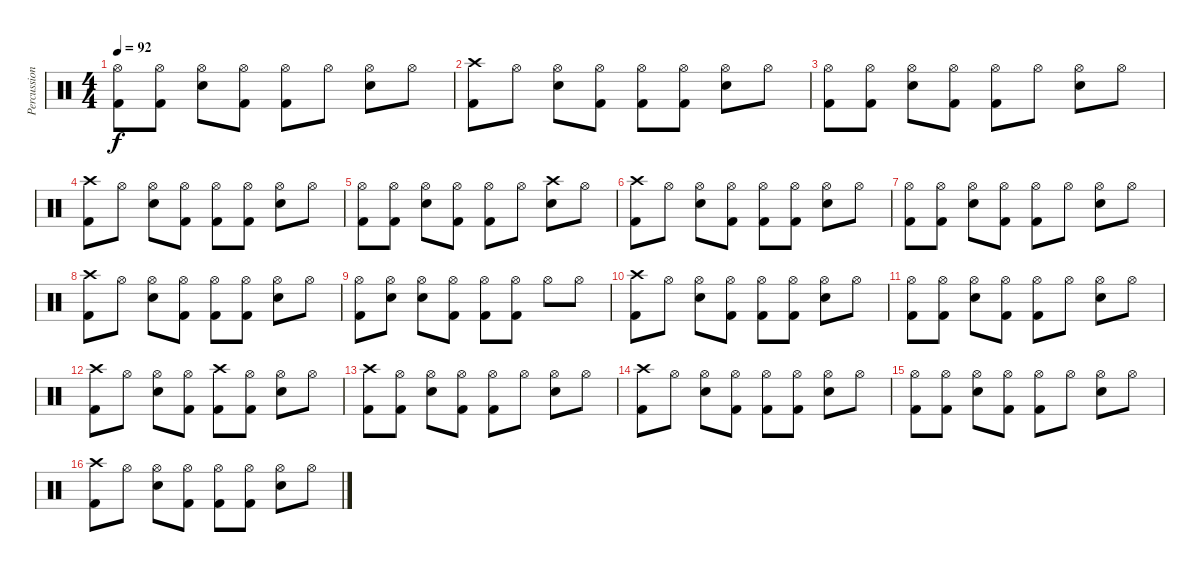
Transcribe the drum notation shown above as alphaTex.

\track ("Percussion" "Percussion") {instrument percussion}
\staff {score}
\articulation defaults
\ts (4 4)
\tempo 92
\clef neutral
\ks c
("Hi-Hat (open)" "Kick (hit) 2").8{dy f} ("Hi-Hat (open)" "Kick (hit) 2").8 ("Hi-Hat (open)" "Electric Snare (hit)").8 ("Hi-Hat (open)" "Kick (hit) 2").8 ("Hi-Hat (open)" "Kick (hit) 2").8 "Hi-Hat (open)".8 ("Hi-Hat (open)" "Electric Snare (hit)").8 "Hi-Hat (open)".8 |
("Crash high (hit)" "Kick (hit) 2").8 "Hi-Hat (open)".8 ("Hi-Hat (open)" "Electric Snare (hit)").8 ("Hi-Hat (open)" "Kick (hit) 2").8 ("Hi-Hat (open)" "Kick (hit) 2").8 ("Hi-Hat (open)" "Kick (hit) 2").8 ("Hi-Hat (open)" "Electric Snare (hit)").8 "Hi-Hat (open)".8 |
("Hi-Hat (open)" "Kick (hit) 2").8 ("Hi-Hat (open)" "Kick (hit) 2").8 ("Hi-Hat (open)" "Electric Snare (hit)").8 ("Hi-Hat (open)" "Kick (hit) 2").8 ("Hi-Hat (open)" "Kick (hit) 2").8 "Hi-Hat (open)".8 ("Hi-Hat (open)" "Electric Snare (hit)").8 "Hi-Hat (open)".8 |
("Crash high (hit)" "Kick (hit) 2").8 "Hi-Hat (open)".8 ("Hi-Hat (open)" "Electric Snare (hit)").8 ("Hi-Hat (open)" "Kick (hit) 2").8 ("Hi-Hat (open)" "Kick (hit) 2").8 ("Hi-Hat (open)" "Kick (hit) 2").8 ("Hi-Hat (open)" "Electric Snare (hit)").8 "Hi-Hat (open)".8 |
("Hi-Hat (open)" "Kick (hit) 2").8 ("Hi-Hat (open)" "Kick (hit) 2").8 ("Hi-Hat (open)" "Electric Snare (hit)").8 ("Hi-Hat (open)" "Kick (hit) 2").8 ("Hi-Hat (open)" "Kick (hit) 2").8 "Hi-Hat (open)".8 ("Crash high (hit)" "Electric Snare (hit)").8 "Hi-Hat (open)".8 |
("Crash high (hit)" "Kick (hit) 2").8 "Hi-Hat (open)".8 ("Hi-Hat (open)" "Electric Snare (hit)").8 ("Hi-Hat (open)" "Kick (hit) 2").8 ("Hi-Hat (open)" "Kick (hit) 2").8 ("Hi-Hat (open)" "Kick (hit) 2").8 ("Hi-Hat (open)" "Electric Snare (hit)").8 "Hi-Hat (open)".8 |
("Hi-Hat (open)" "Kick (hit) 2").8 ("Hi-Hat (open)" "Kick (hit) 2").8 ("Hi-Hat (open)" "Electric Snare (hit)").8 ("Hi-Hat (open)" "Kick (hit) 2").8 ("Hi-Hat (open)" "Kick (hit) 2").8 "Hi-Hat (open)".8 ("Hi-Hat (open)" "Electric Snare (hit)").8 "Hi-Hat (open)".8 |
("Crash high (hit)" "Kick (hit) 2").8 "Hi-Hat (open)".8 ("Hi-Hat (open)" "Electric Snare (hit)").8 ("Hi-Hat (open)" "Kick (hit) 2").8 ("Hi-Hat (open)" "Kick (hit) 2").8 ("Hi-Hat (open)" "Kick (hit) 2").8 ("Hi-Hat (open)" "Electric Snare (hit)").8 "Hi-Hat (open)".8 |
("Hi-Hat (open)" "Kick (hit) 2").8 ("Hi-Hat (open)" "Electric Snare (hit)").8 ("Hi-Hat (open)" "Electric Snare (hit)").8 ("Hi-Hat (open)" "Kick (hit) 2").8 ("Hi-Hat (open)" "Kick (hit) 2").8 ("Hi-Hat (open)" "Kick (hit) 2").8 "Hi-Hat (open)".8 "Hi-Hat (open)".8 |
("Crash high (hit)" "Kick (hit) 2").8 "Hi-Hat (open)".8 ("Hi-Hat (open)" "Electric Snare (hit)").8 ("Hi-Hat (open)" "Kick (hit) 2").8 ("Hi-Hat (open)" "Kick (hit) 2").8 ("Hi-Hat (open)" "Kick (hit) 2").8 ("Hi-Hat (open)" "Electric Snare (hit)").8 "Hi-Hat (open)".8 |
("Hi-Hat (open)" "Kick (hit) 2").8 ("Hi-Hat (open)" "Kick (hit) 2").8 ("Hi-Hat (open)" "Electric Snare (hit)").8 ("Hi-Hat (open)" "Kick (hit) 2").8 ("Hi-Hat (open)" "Kick (hit) 2").8 "Hi-Hat (open)".8 ("Hi-Hat (open)" "Electric Snare (hit)").8 "Hi-Hat (open)".8 |
("Crash high (hit)" "Kick (hit) 2").8 "Hi-Hat (open)".8 ("Hi-Hat (open)" "Electric Snare (hit)").8 ("Hi-Hat (open)" "Kick (hit) 2").8 ("Crash high (hit)" "Kick (hit) 2").8 ("Hi-Hat (open)" "Kick (hit) 2").8 ("Hi-Hat (open)" "Electric Snare (hit)").8 "Hi-Hat (open)".8 |
("Crash high (hit)" "Kick (hit) 2").8 ("Hi-Hat (open)" "Kick (hit) 2").8 ("Hi-Hat (open)" "Electric Snare (hit)").8 ("Hi-Hat (open)" "Kick (hit) 2").8 ("Hi-Hat (open)" "Kick (hit) 2").8 "Hi-Hat (open)".8 ("Hi-Hat (open)" "Electric Snare (hit)").8 "Hi-Hat (open)".8 |
("Crash high (hit)" "Kick (hit) 2").8 "Hi-Hat (open)".8 ("Hi-Hat (open)" "Electric Snare (hit)").8 ("Hi-Hat (open)" "Kick (hit) 2").8 ("Hi-Hat (open)" "Kick (hit) 2").8 ("Hi-Hat (open)" "Kick (hit) 2").8 ("Hi-Hat (open)" "Electric Snare (hit)").8 "Hi-Hat (open)".8 |
("Hi-Hat (open)" "Kick (hit) 2").8 ("Hi-Hat (open)" "Kick (hit) 2").8 ("Hi-Hat (open)" "Electric Snare (hit)").8 ("Hi-Hat (open)" "Kick (hit) 2").8 ("Hi-Hat (open)" "Kick (hit) 2").8 "Hi-Hat (open)".8 ("Hi-Hat (open)" "Electric Snare (hit)").8 "Hi-Hat (open)".8 |
("Crash high (hit)" "Kick (hit) 2").8 "Hi-Hat (open)".8 ("Hi-Hat (open)" "Electric Snare (hit)").8 ("Hi-Hat (open)" "Kick (hit) 2").8 ("Hi-Hat (open)" "Kick (hit) 2").8 ("Hi-Hat (open)" "Kick (hit) 2").8 ("Hi-Hat (open)" "Electric Snare (hit)").8 "Hi-Hat (open)".8
